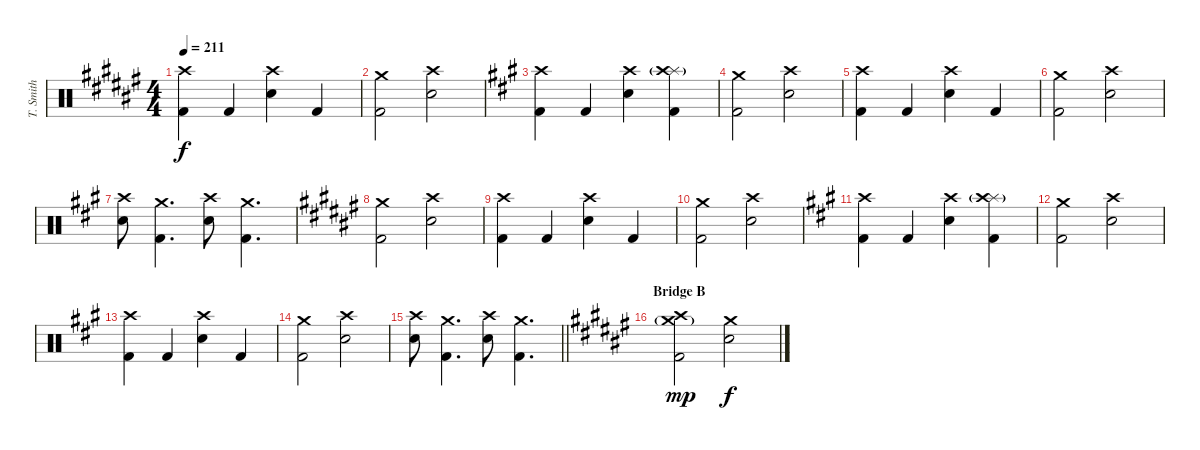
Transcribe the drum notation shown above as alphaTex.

\track ("T. Smith" "T. Smith") {instrument percussion}
\staff {score}
\articulation defaults
\ts (4 4)
\tempo 211
\clef neutral
\ks d#minor
("Crash high (hit)" "Kick (hit) 2").4{dy f} "Kick (hit) 2".4 ("Crash high (hit)" "Electric Snare (hit)").4 "Kick (hit) 2".4 |
("Crash medium (hit)" "Kick (hit) 2").2 ("Crash high (hit)" "Electric Snare (hit)").2 |
\ks f#minor
("Crash high (hit)" "Kick (hit) 2").4 "Kick (hit) 2".4 ("Crash high (hit)" "Electric Snare (hit)").4 ("Splash (hit)" "Crash high (hit)"{g} "Kick (hit) 2").4 |
("Crash medium (hit)" "Kick (hit) 2").2 ("Crash high (hit)" "Electric Snare (hit)").2 |
("Crash high (hit)" "Kick (hit) 2").4 "Kick (hit) 2".4 ("Crash high (hit)" "Electric Snare (hit)").4 "Kick (hit) 2".4 |
("Crash medium (hit)" "Kick (hit) 2").2 ("Crash high (hit)" "Electric Snare (hit)").2 |
("Crash high (hit)" "Electric Snare (hit)").8 ("Crash medium (hit)" "Kick (hit) 2").4{d} ("Crash high (hit)" "Electric Snare (hit)").8 ("Crash medium (hit)" "Kick (hit) 2").4{d} |
\ks d#minor
("Crash medium (hit)" "Kick (hit) 2").2 ("Crash high (hit)" "Electric Snare (hit)").2 |
("Crash high (hit)" "Kick (hit) 2").4 "Kick (hit) 2".4 ("Crash high (hit)" "Electric Snare (hit)").4 "Kick (hit) 2".4 |
("Crash medium (hit)" "Kick (hit) 2").2 ("Crash high (hit)" "Electric Snare (hit)").2 |
\ks f#minor
("Crash high (hit)" "Kick (hit) 2").4 "Kick (hit) 2".4 ("Crash high (hit)" "Electric Snare (hit)").4 ("Splash (hit)" "Crash high (hit)"{g} "Kick (hit) 2").4 |
("Crash medium (hit)" "Kick (hit) 2").2 ("Crash high (hit)" "Electric Snare (hit)").2 |
("Crash high (hit)" "Kick (hit) 2").4 "Kick (hit) 2".4 ("Crash high (hit)" "Electric Snare (hit)").4 "Kick (hit) 2".4 |
("Crash medium (hit)" "Kick (hit) 2").2 ("Crash high (hit)" "Electric Snare (hit)").2 |
\barLineRight lightlight
("Crash high (hit)" "Electric Snare (hit)").8 ("Crash medium (hit)" "Kick (hit) 2").4{d} ("Crash high (hit)" "Electric Snare (hit)").8 ("Crash medium (hit)" "Kick (hit) 2").4{d} |
\section ("" "Bridge B")
\ks d#minor
("Crash medium (hit)"{g} "Crash high (hit)" "Kick (hit) 2").2{dy mp} ("Crash medium (hit)" "Electric Snare (hit)").2{dy f}
